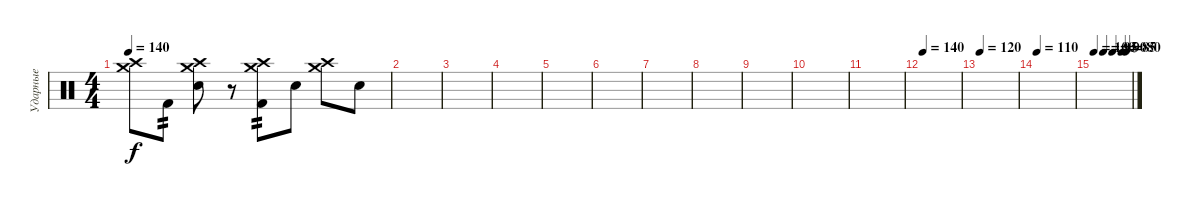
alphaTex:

\track ("Ударные" "Ударные") {instrument percussion}
\staff {score}
\articulation defaults
\ts (4 4)
\tempo 140
\clef neutral
\ks c
("Crash high (hit)" "Crash medium (hit)").8{dy f} "Kick (hit) 2".8{tp 2} ("Crash high (hit)" "Crash medium (hit)" "Electric Snare (hit)").8 r.8 ("Crash high (hit)" "Crash medium (hit)" "Kick (hit) 2").8{tp 2} "Electric Snare (hit)".8 ("Crash high (hit)" "Crash medium (hit)").8 "Electric Snare (hit)".8 |
|
|
|
|
|
|
|
|
|
|
\tempo 140
|
\tempo 120
|
\tempo 110
|
\tempo 100
\tempo (95 0.25)
\tempo (90 0.5)
\tempo (85 0.75)
\tempo (80 0.875)
